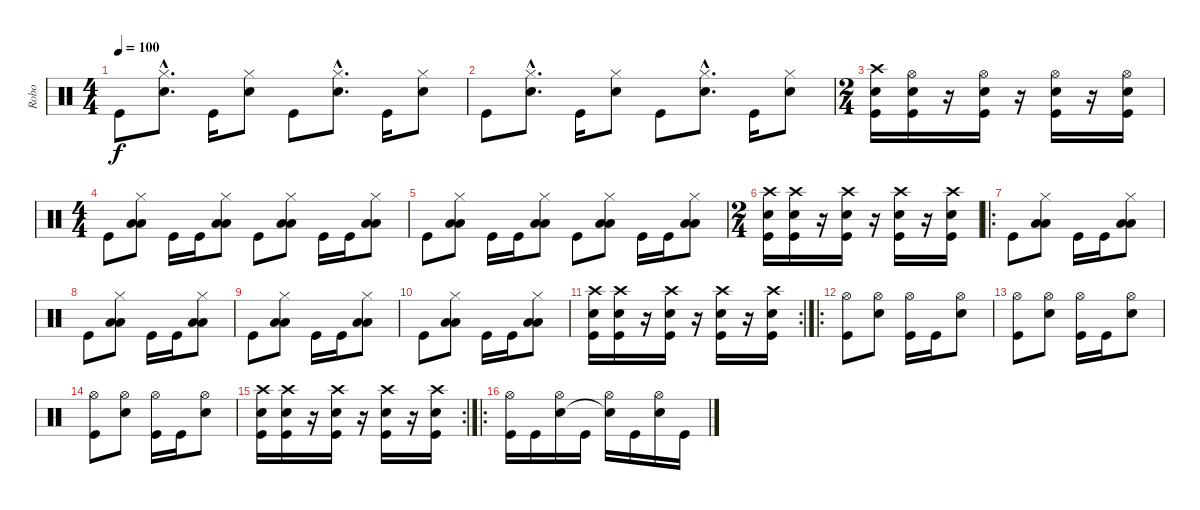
\track ("Robo" "Robo") {instrument percussion}
\staff {score}
\articulation defaults
\ts (4 4)
\tempo 100
\clef neutral
\ks c "Kick (hit)".8{dy f}
("Hi-Hat (closed)"{hac} "Snare (hit) 2"{hac}).8{d} "Kick (hit)".16 ("Hi-Hat (closed)" "Snare (hit) 2").8 "Kick (hit)".8 ("Hi-Hat (closed)"{hac} "Snare (hit) 2"{hac}).8{d} "Kick (hit)".16 ("Hi-Hat (closed)" "Snare (hit) 2").8 |
"Kick (hit)".8 ("Hi-Hat (closed)"{hac} "Snare (hit) 2"{hac}).8{d} "Kick (hit)".16 ("Hi-Hat (closed)" "Snare (hit) 2").8 "Kick (hit)".8 ("Hi-Hat (closed)"{hac} "Snare (hit) 2"{hac}).8{d} "Kick (hit)".16 ("Hi-Hat (closed)" "Snare (hit) 2").8 |
\ts (2 4)
("Crash high (hit)" "Snare (hit) 2" "Kick (hit)").16 ("Hi-Hat (open)" "Snare (hit) 2" "Kick (hit)").16 r.16 ("Hi-Hat (open)" "Snare (hit) 2" "Kick (hit)").16 r.16 ("Hi-Hat (open)" "Snare (hit) 2" "Kick (hit)").16 r.16 ("Hi-Hat (open)" "Snare (hit) 2" "Kick (hit)").16 |
\ts (4 4)
"Kick (hit)".8 ("Hi-Hat (closed)" "Low Tom (hit)" "Low Tom (hit)").8 "Kick (hit)".16 "Kick (hit)".16 ("Hi-Hat (closed)" "Low Tom (hit)" "Low Tom (hit)").8 "Kick (hit)".8 ("Hi-Hat (closed)" "Low Tom (hit)" "Low Tom (hit)").8 "Kick (hit)".16 "Kick (hit)".16 ("Hi-Hat (closed)" "Low Tom (hit)" "Low Tom (hit)").8 |
"Kick (hit)".8 ("Hi-Hat (closed)" "Low Tom (hit)" "Low Tom (hit)").8 "Kick (hit)".16 "Kick (hit)".16 ("Hi-Hat (closed)" "Low Tom (hit)" "Low Tom (hit)").8 "Kick (hit)".8 ("Hi-Hat (closed)" "Low Tom (hit)" "Low Tom (hit)").8 "Kick (hit)".16 "Kick (hit)".16 ("Hi-Hat (closed)" "Low Tom (hit)" "Low Tom (hit)").8 |
\ts (2 4)
("Crash high (hit)" "Snare (hit) 2" "Kick (hit)").16 ("Crash high (hit)" "Snare (hit) 2" "Kick (hit)").16 r.16 ("Crash high (hit)" "Snare (hit) 2" "Kick (hit)").16 r.16 ("Crash high (hit)" "Snare (hit) 2" "Kick (hit)").16 r.16 ("Crash high (hit)" "Snare (hit) 2" "Kick (hit)").16 |
\ro "Kick (hit)".8
("Hi-Hat (closed)" "Low Tom (hit)" "Low Tom (hit)").8 "Kick (hit)".16 "Kick (hit)".16 ("Hi-Hat (closed)" "Low Tom (hit)" "Low Tom (hit)").8 |
"Kick (hit)".8 ("Hi-Hat (closed)" "Low Tom (hit)" "Low Tom (hit)").8 "Kick (hit)".16 "Kick (hit)".16 ("Hi-Hat (closed)" "Low Tom (hit)" "Low Tom (hit)").8 |
"Kick (hit)".8 ("Hi-Hat (closed)" "Low Tom (hit)" "Low Tom (hit)").8 "Kick (hit)".16 "Kick (hit)".16 ("Hi-Hat (closed)" "Low Tom (hit)" "Low Tom (hit)").8 |
"Kick (hit)".8 ("Hi-Hat (closed)" "Low Tom (hit)" "Low Tom (hit)").8 "Kick (hit)".16 "Kick (hit)".16 ("Hi-Hat (closed)" "Low Tom (hit)" "Low Tom (hit)").8 |
\rc 2
("Crash high (hit)" "Snare (hit) 2" "Kick (hit)").16 ("Crash high (hit)" "Snare (hit) 2" "Kick (hit)").16 r.16 ("Crash high (hit)" "Snare (hit) 2" "Kick (hit)").16 r.16 ("Crash high (hit)" "Snare (hit) 2" "Kick (hit)").16 r.16 ("Crash high (hit)" "Snare (hit) 2" "Kick (hit)").16 |
\ro
("Hi-Hat (open)" "Kick (hit)").8 ("Hi-Hat (open)" "Snare (hit) 2").8 ("Hi-Hat (open)" "Kick (hit)").16 "Kick (hit)".16 ("Hi-Hat (open)" "Snare (hit) 2").8 |
("Hi-Hat (open)" "Kick (hit)").8 ("Hi-Hat (open)" "Snare (hit) 2").8 ("Hi-Hat (open)" "Kick (hit)").16 "Kick (hit)".16 ("Hi-Hat (open)" "Snare (hit) 2").8 |
("Hi-Hat (open)" "Kick (hit)").8 ("Hi-Hat (open)" "Snare (hit) 2").8 ("Hi-Hat (open)" "Kick (hit)").16 "Kick (hit)".16 ("Hi-Hat (open)" "Snare (hit) 2").8 |
\rc 2
("Crash high (hit)" "Snare (hit) 2" "Kick (hit)").16 ("Crash high (hit)" "Snare (hit) 2" "Kick (hit)").16 r.16 ("Crash high (hit)" "Snare (hit) 2" "Kick (hit)").16 r.16 ("Crash high (hit)" "Snare (hit) 2" "Kick (hit)").16 r.16 ("Crash high (hit)" "Snare (hit) 2" "Kick (hit)").16 |
\ro
("Hi-Hat (open)" "Kick (hit)").16 "Kick (hit)".16 ("Hi-Hat (open)" "Snare (hit) 2").16 "Kick (hit)".16 ("Hi-Hat (open)" "Snare (hit)"{t}).16 "Kick (hit)".16 ("Hi-Hat (open)" "Snare (hit) 2").16 "Kick (hit)".16
